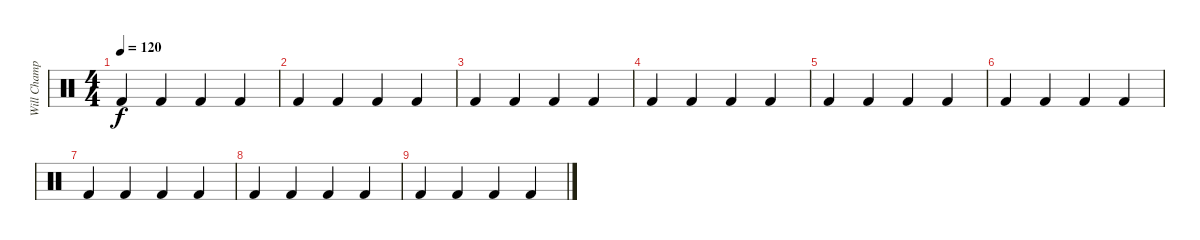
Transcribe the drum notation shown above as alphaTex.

\track ("Will Champion" "Will Champ") {instrument percussion}
\staff {score}
\articulation defaults
\ts (4 4)
\tempo 120
\clef neutral
\ks c "Kick (hit) 2".4{dy f} "Kick (hit) 2".4 "Kick (hit) 2".4 "Kick (hit) 2".4
|
"Kick (hit) 2".4 "Kick (hit) 2".4 "Kick (hit) 2".4 "Kick (hit) 2".4 |
"Kick (hit) 2".4 "Kick (hit) 2".4 "Kick (hit) 2".4 "Kick (hit) 2".4 |
"Kick (hit) 2".4 "Kick (hit) 2".4 "Kick (hit) 2".4 "Kick (hit) 2".4 |
"Kick (hit) 2".4 "Kick (hit) 2".4 "Kick (hit) 2".4 "Kick (hit) 2".4 |
"Kick (hit) 2".4 "Kick (hit) 2".4 "Kick (hit) 2".4 "Kick (hit) 2".4 |
"Kick (hit) 2".4 "Kick (hit) 2".4 "Kick (hit) 2".4 "Kick (hit) 2".4 |
"Kick (hit) 2".4 "Kick (hit) 2".4 "Kick (hit) 2".4 "Kick (hit) 2".4 |
"Kick (hit) 2".4 "Kick (hit) 2".4 "Kick (hit) 2".4 "Kick (hit) 2".4
